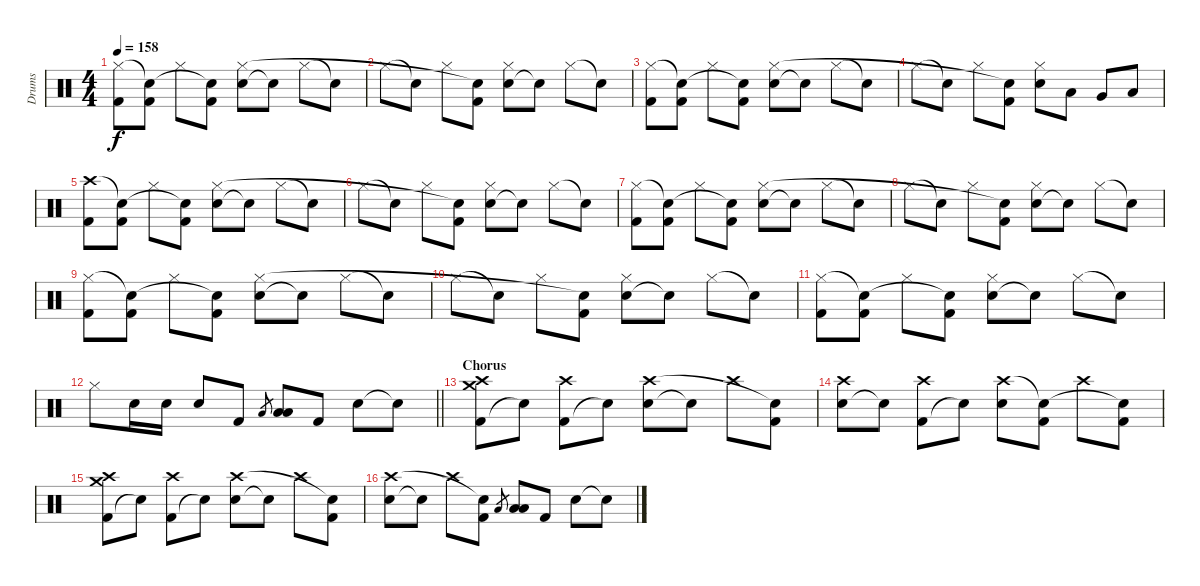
\track ("Drums" "Drums") {instrument percussion}
\staff {score}
\articulation defaults
\ts (4 4)
\tempo 158
\clef neutral
\ks c
("Kick (hit) 2" "Hi-Hat (closed)").8{dy f} ("Kick (hit) 2" "Snare (hit)"{t}).8 "Hi-Hat (closed)".8 ("Kick (hit) 2" "Snare (hit)"{t}).8 ("Electric Snare (hit)" "Hi-Hat (closed)").8 "Snare (hit)"{t}.8 "Hi-Hat (closed)".8 "Snare (hit)"{t}.8 |
"Hi-Hat (closed)".8 "Snare (hit)"{t}.8 "Hi-Hat (closed)".8 ("Kick (hit) 2" "Snare (hit)"{t}).8 ("Electric Snare (hit)" "Hi-Hat (closed)").8 "Snare (hit)"{t}.8 "Hi-Hat (closed)".8 "Snare (hit)"{t}.8 |
("Kick (hit) 2" "Hi-Hat (closed)").8 ("Kick (hit) 2" "Snare (hit)"{t}).8 "Hi-Hat (closed)".8 ("Kick (hit) 2" "Snare (hit)"{t}).8 ("Electric Snare (hit)" "Hi-Hat (closed)").8 "Snare (hit)"{t}.8 "Hi-Hat (closed)".8 "Snare (hit)"{t}.8 |
"Hi-Hat (closed)".8 "Snare (hit)"{t}.8 "Hi-Hat (closed)".8 ("Kick (hit) 2" "Snare (hit)"{t}).8 ("Electric Snare (hit)" "Hi-Hat (closed)").8 "Low Tom (hit)".8 "Very Low Tom (hit)".8 "Low Floor Tom (hit)".8 |
("Kick (hit) 2" "Crash high (hit)").8 ("Kick (hit) 2" "Snare (hit)"{t}).8 "Hi-Hat (closed)".8 ("Kick (hit) 2" "Snare (hit)"{t}).8 ("Electric Snare (hit)" "Hi-Hat (closed)").8 "Snare (hit)"{t}.8 "Hi-Hat (closed)".8 "Snare (hit)"{t}.8 |
"Hi-Hat (closed)".8 "Snare (hit)"{t}.8 "Hi-Hat (closed)".8 ("Kick (hit) 2" "Snare (hit)"{t}).8 ("Electric Snare (hit)" "Hi-Hat (closed)").8 "Snare (hit)"{t}.8 "Hi-Hat (closed)".8 "Snare (hit)"{t}.8 |
("Kick (hit) 2" "Hi-Hat (closed)").8 ("Kick (hit) 2" "Snare (hit)"{t}).8 "Hi-Hat (closed)".8 ("Kick (hit) 2" "Snare (hit)"{t}).8 ("Electric Snare (hit)" "Hi-Hat (closed)").8 "Snare (hit)"{t}.8 "Hi-Hat (closed)".8 "Snare (hit)"{t}.8 |
"Hi-Hat (closed)".8 "Snare (hit)"{t}.8 "Hi-Hat (closed)".8 ("Kick (hit) 2" "Snare (hit)"{t}).8 ("Electric Snare (hit)" "Hi-Hat (closed)").8 "Snare (hit)"{t}.8 "Hi-Hat (closed)".8 "Snare (hit)"{t}.8 |
("Kick (hit) 2" "Hi-Hat (closed)").8 ("Kick (hit) 2" "Snare (hit)"{t}).8 "Hi-Hat (closed)".8 ("Kick (hit) 2" "Snare (hit)"{t}).8 ("Electric Snare (hit)" "Hi-Hat (closed)").8 "Snare (hit)"{t}.8 "Hi-Hat (closed)".8 "Snare (hit)"{t}.8 |
"Hi-Hat (closed)".8 "Snare (hit)"{t}.8 "Hi-Hat (closed)".8 ("Kick (hit) 2" "Snare (hit)"{t}).8 ("Electric Snare (hit)" "Hi-Hat (closed)").8 "Snare (hit)"{t}.8 "Hi-Hat (closed)".8 "Snare (hit)"{t}.8 |
("Kick (hit) 2" "Hi-Hat (closed)").8 ("Kick (hit) 2" "Snare (hit)"{t}).8 "Hi-Hat (closed)".8 ("Kick (hit) 2" "Snare (hit)"{t}).8 ("Electric Snare (hit)" "Hi-Hat (closed)").8 "Snare (hit)"{t}.8 "Hi-Hat (closed)".8 "Snare (hit)"{t}.8 |
\barLineRight lightlight "Hi-Hat (closed)".8 "Electric Snare (hit)".16 "Electric Snare (hit)".16 "Electric Snare (hit)".8 "Kick (hit) 2".8 "Low Tom (hit)".8{gr}
("Low Tom (hit)" "Low Floor Tom (hit)").8 "Kick (hit) 2".8 "Electric Snare (hit)".8 "Snare (hit)"{t}.8 |
\section ("" "Chorus")
("Kick (hit) 2" "Crash medium (hit)" "Crash high (hit)").8 "Snare (hit)"{t}.8 ("Kick (hit) 2" "Crash high (hit)").8 "Snare (hit)"{t}.8 ("Electric Snare (hit)" "Crash high (hit)").8 "Snare (hit)"{t}.8 "Crash high (hit)".8 ("Kick (hit) 2" "Snare (hit)"{t}).8 |
("Electric Snare (hit)" "Crash high (hit)").8 "Snare (hit)"{t}.8 ("Kick (hit) 2" "Crash high (hit)").8 "Snare (hit)"{t}.8 ("Electric Snare (hit)" "Crash high (hit)").8 ("Kick (hit) 2" "Snare (hit)"{t}).8 "Crash high (hit)".8 ("Kick (hit) 2" "Snare (hit)"{t}).8 |
("Kick (hit) 2" "Crash medium (hit)" "Crash high (hit)").8 "Snare (hit)"{t}.8 ("Kick (hit) 2" "Crash high (hit)").8 "Snare (hit)"{t}.8 ("Electric Snare (hit)" "Crash high (hit)").8 "Snare (hit)"{t}.8 "Crash high (hit)".8 ("Kick (hit) 2" "Snare (hit)"{t}).8 |
("Electric Snare (hit)" "Crash high (hit)").8 "Snare (hit)"{t}.8 "Crash high (hit)".8 ("Kick (hit) 2" "Snare (hit)"{t}).8 "Low Tom (hit)".8{gr} ("Low Tom (hit)" "Low Floor Tom (hit)").8 "Kick (hit) 2".8 "Electric Snare (hit)".8 "Snare (hit)"{t}.8
